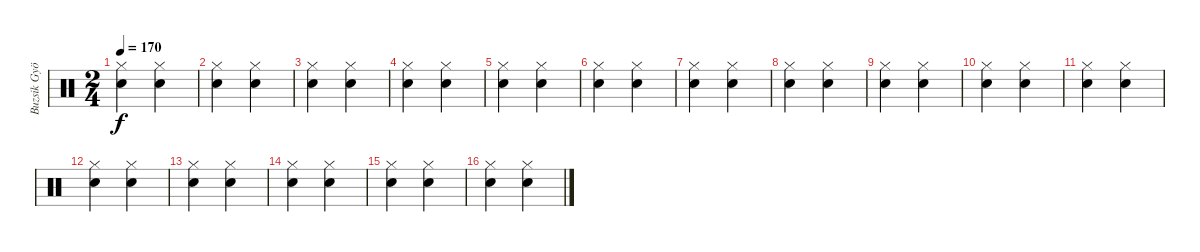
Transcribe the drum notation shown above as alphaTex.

\track ("Buzsik György (dob)" "Buzsik Gyö") {instrument percussion}
\staff {score}
\articulation defaults
\ts (2 4)
\tempo 170
\clef neutral
\ks c
("Hi-Hat (closed)" "Snare (hit) 2").4{dy f} ("Hi-Hat (closed)" "Snare (hit) 2").4 |
("Hi-Hat (closed)" "Snare (hit) 2").4 ("Hi-Hat (closed)" "Snare (hit) 2").4 |
("Hi-Hat (closed)" "Snare (hit) 2").4 ("Hi-Hat (closed)" "Snare (hit) 2").4 |
("Hi-Hat (closed)" "Snare (hit) 2").4 ("Hi-Hat (closed)" "Snare (hit) 2").4 |
("Hi-Hat (closed)" "Snare (hit) 2").4 ("Hi-Hat (closed)" "Snare (hit) 2").4 |
("Hi-Hat (closed)" "Snare (hit) 2").4 ("Hi-Hat (closed)" "Snare (hit) 2").4 |
("Hi-Hat (closed)" "Snare (hit) 2").4 ("Hi-Hat (closed)" "Snare (hit) 2").4 |
("Hi-Hat (closed)" "Snare (hit) 2").4 ("Hi-Hat (closed)" "Snare (hit) 2").4 |
("Hi-Hat (closed)" "Snare (hit) 2").4 ("Hi-Hat (closed)" "Snare (hit) 2").4 |
("Hi-Hat (closed)" "Snare (hit) 2").4 ("Hi-Hat (closed)" "Snare (hit) 2").4 |
("Hi-Hat (closed)" "Snare (hit) 2").4 ("Hi-Hat (closed)" "Snare (hit) 2").4 |
("Hi-Hat (closed)" "Snare (hit) 2").4 ("Hi-Hat (closed)" "Snare (hit) 2").4 |
("Hi-Hat (closed)" "Snare (hit) 2").4 ("Hi-Hat (closed)" "Snare (hit) 2").4 |
("Hi-Hat (closed)" "Snare (hit) 2").4 ("Hi-Hat (closed)" "Snare (hit) 2").4 |
("Hi-Hat (closed)" "Snare (hit) 2").4 ("Hi-Hat (closed)" "Snare (hit) 2").4 |
("Hi-Hat (closed)" "Snare (hit) 2").4 ("Hi-Hat (closed)" "Snare (hit) 2").4
